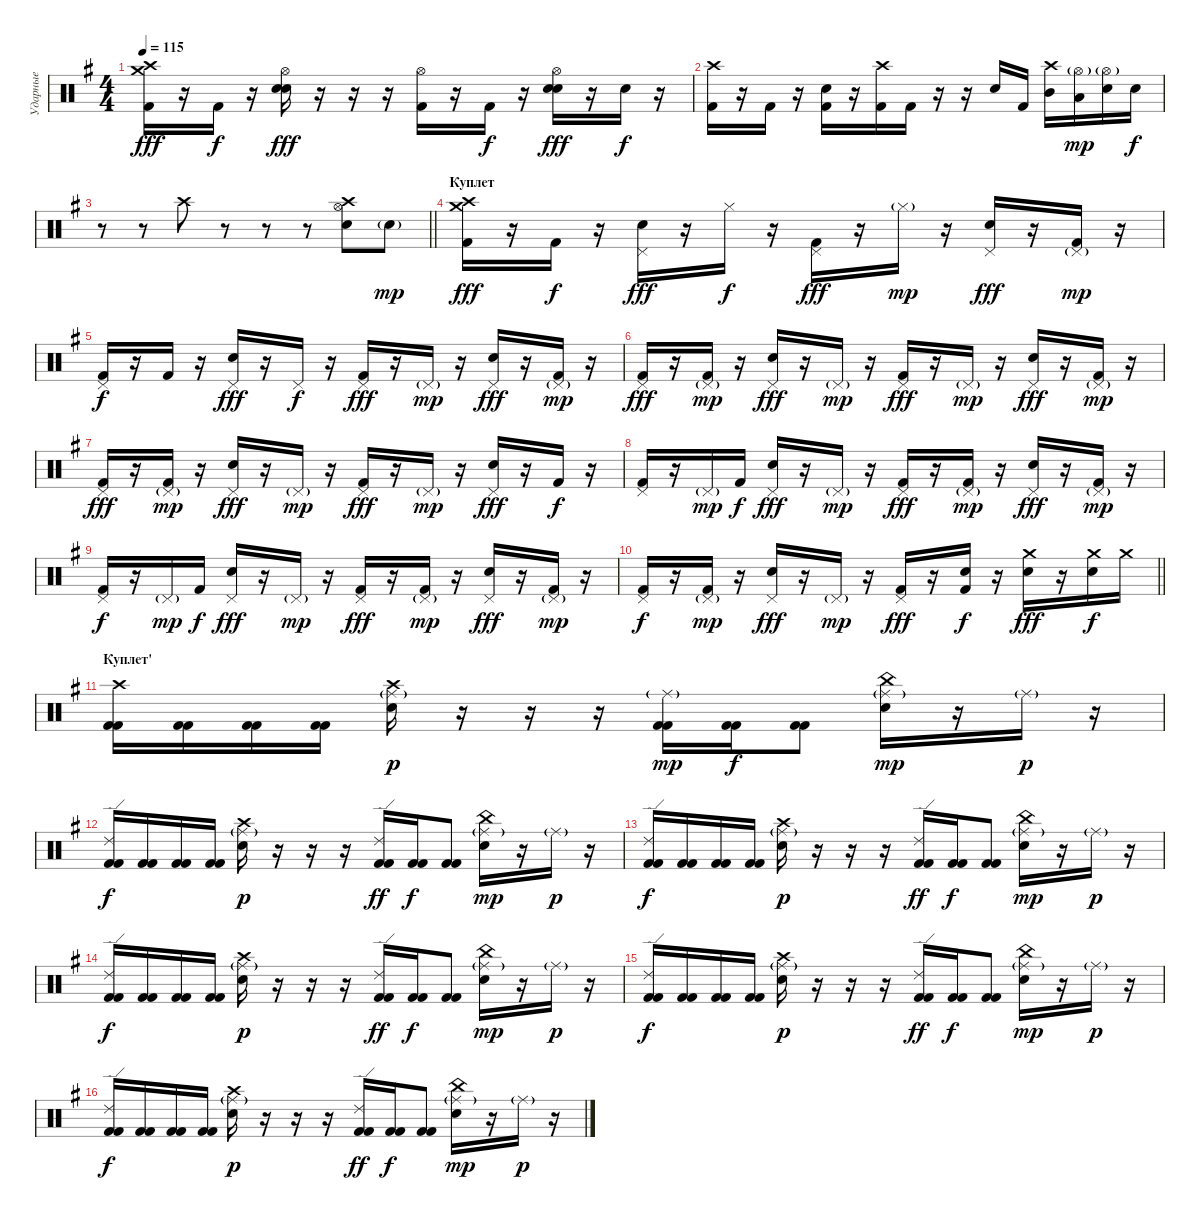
\track ("Ударные" "Ударные") {instrument percussion}
\staff {score}
\articulation defaults
\ts (4 4)
\tempo 115
\clef neutral
\ks g
("Crash high (hit)" "Crash medium (hit)" "Kick (hit) 2").16{dy fff volume 16} r.16 "Kick (hit) 2".16{dy f} r.16 ("Hi-Hat (open)" "Electric Snare (hit)" "Electric Snare (hit)").16{dy fff} r.16 r.16 r.16 ("Hi-Hat (open)" "Kick (hit) 2").16 r.16 "Kick (hit) 2".16{dy f} r.16 ("Hi-Hat (open)" "Electric Snare (hit)" "Electric Snare (hit)").16{dy fff} r.16 "Electric Snare (hit)".16{dy f} r.16 |
("Crash high (hit)" "Kick (hit) 2").16 r.16 "Kick (hit) 2".16 r.16 ("Electric Snare (hit)" "Kick (hit) 2").16 r.16 ("Crash high (hit)" "Kick (hit) 2").16 "Kick (hit) 2".16 r.16 r.16 "Electric Snare (hit)".16 "Kick (hit) 2".16 ("Crash high (hit)" "Mid Tom (hit)").16 ("Hi-Hat (open)"{g} "Low Tom (hit)").16{dy mp} ("Hi-Hat (open)"{g} "Electric Snare (hit)").16 "Electric Snare (hit)".16{dy f} |
\barLineRight lightlight
r.8 r.8 "Crash high (hit)".8 r.8 r.8 r.8 ("Crash high (hit)" "Hi-Hat (open)" "Electric Snare (hit)").8 "Electric Snare (hit)"{g}.8{dy mp} |
\section ("" "Куплет")
("Crash high (hit)" "Crash medium (hit)" "Kick (hit) 2").16{dy fff volume 14 balance 8} r.16 "Kick (hit) 2".16{dy f} r.16 ("Pedal Hi-Hat (hit)" "Electric Snare (hit)").16{dy fff} r.16 "Hi-Hat (closed)".16{dy f} r.16 ("Pedal Hi-Hat (hit)" "Kick (hit) 2").16{dy fff} r.16 "Hi-Hat (closed)"{g}.16{dy mp} r.16 ("Pedal Hi-Hat (hit)" "Electric Snare (hit)").16{dy fff} r.16 ("Pedal Hi-Hat (hit)"{g} "Kick (hit) 2").16{dy mp} r.16 |
("Pedal Hi-Hat (hit)" "Kick (hit) 2").16{dy f} r.16 "Kick (hit) 2".16 r.16 ("Pedal Hi-Hat (hit)" "Electric Snare (hit)").16{dy fff} r.16 "Pedal Hi-Hat (hit)".16{dy f} r.16 ("Pedal Hi-Hat (hit)" "Kick (hit) 2").16{dy fff} r.16 "Pedal Hi-Hat (hit)"{g}.16{dy mp} r.16 ("Pedal Hi-Hat (hit)" "Electric Snare (hit)").16{dy fff} r.16 ("Pedal Hi-Hat (hit)"{g} "Kick (hit) 2").16{dy mp} r.16 |
("Pedal Hi-Hat (hit)" "Kick (hit) 2").16{dy fff} r.16 ("Pedal Hi-Hat (hit)"{g} "Kick (hit) 2").16{dy mp} r.16 ("Pedal Hi-Hat (hit)" "Electric Snare (hit)").16{dy fff} r.16 "Pedal Hi-Hat (hit)"{g}.16{dy mp} r.16 ("Pedal Hi-Hat (hit)" "Kick (hit) 2").16{dy fff} r.16 "Pedal Hi-Hat (hit)"{g}.16{dy mp} r.16 ("Pedal Hi-Hat (hit)" "Electric Snare (hit)").16{dy fff} r.16 ("Pedal Hi-Hat (hit)"{g} "Kick (hit) 2").16{dy mp} r.16 |
("Pedal Hi-Hat (hit)" "Kick (hit) 2").16{dy fff} r.16 ("Pedal Hi-Hat (hit)"{g} "Kick (hit) 2").16{dy mp} r.16 ("Pedal Hi-Hat (hit)" "Electric Snare (hit)").16{dy fff} r.16 "Pedal Hi-Hat (hit)"{g}.16{dy mp} r.16 ("Pedal Hi-Hat (hit)" "Kick (hit) 2").16{dy fff} r.16 "Pedal Hi-Hat (hit)"{g}.16{dy mp} r.16 ("Pedal Hi-Hat (hit)" "Electric Snare (hit)").16{dy fff} r.16 "Kick (hit) 2".16{dy f} r.16 |
("Pedal Hi-Hat (hit)" "Kick (hit) 2").16 r.16 "Pedal Hi-Hat (hit)"{g}.16{dy mp} "Kick (hit) 2".16{dy f} ("Pedal Hi-Hat (hit)" "Electric Snare (hit)").16{dy fff} r.16 "Pedal Hi-Hat (hit)"{g}.16{dy mp} r.16 ("Pedal Hi-Hat (hit)" "Kick (hit) 2").16{dy fff} r.16 ("Pedal Hi-Hat (hit)"{g} "Kick (hit) 2").16{dy mp} r.16 ("Pedal Hi-Hat (hit)" "Electric Snare (hit)").16{dy fff} r.16 ("Pedal Hi-Hat (hit)"{g} "Kick (hit) 2").16{dy mp} r.16 |
("Pedal Hi-Hat (hit)" "Kick (hit) 2").16{dy f} r.16 "Pedal Hi-Hat (hit)"{g}.16{dy mp} "Kick (hit) 2".16{dy f} ("Pedal Hi-Hat (hit)" "Electric Snare (hit)").16{dy fff} r.16 "Pedal Hi-Hat (hit)"{g}.16{dy mp} r.16 ("Pedal Hi-Hat (hit)" "Kick (hit) 2").16{dy fff} r.16 ("Pedal Hi-Hat (hit)"{g} "Kick (hit) 2").16{dy mp} r.16 ("Pedal Hi-Hat (hit)" "Electric Snare (hit)").16{dy fff} r.16 ("Pedal Hi-Hat (hit)"{g} "Kick (hit) 2").16{dy mp} r.16 |
\barLineRight lightlight
("Pedal Hi-Hat (hit)" "Kick (hit) 2").16{dy f} r.16 ("Pedal Hi-Hat (hit)"{g} "Kick (hit) 2").16{dy mp} r.16 ("Pedal Hi-Hat (hit)" "Electric Snare (hit)").16{dy fff} r.16 "Pedal Hi-Hat (hit)"{g}.16{dy mp} r.16 ("Pedal Hi-Hat (hit)" "Kick (hit) 2").16{dy fff} r.16 ("Electric Snare (hit)" "Kick (hit) 2").16{dy f} r.16 ("Crash medium (hit)" "Electric Snare (hit)").16{dy fff} r.16 ("Crash medium (hit)" "Electric Snare (hit)").16{dy f} "Crash medium (hit)".16 |
\section ("" "Куплет'")
("Crash high (hit)" "Kick (hit) 2" "Kick (hit) 2").16{volume 16} ("Kick (hit) 2" "Kick (hit) 2").16 ("Kick (hit) 2" "Kick (hit) 2").16 ("Kick (hit) 2" "Kick (hit) 2").16 ("Ride (middle)"{g} "Crash high (hit)" "Electric Snare (hit)").16{dy p} r.16 r.16 r.16 ("Ride (middle)"{g} "Kick (hit) 2" "Kick (hit) 2").16{dy mp} ("Kick (hit) 2" "Kick (hit) 2").16{dy f} ("Kick (hit) 2" "Kick (hit) 2").8 ("Ride (middle)"{g} "China (hit)" "Electric Snare (hit)").16{dy mp} r.16 "Ride (middle)"{g}.16{dy p} r.16 |
("Ride (edge) 2" "Kick (hit) 2" "Kick (hit) 2").16{dy f volume 16} ("Kick (hit) 2" "Kick (hit) 2").16 ("Kick (hit) 2" "Kick (hit) 2").16 ("Kick (hit) 2" "Kick (hit) 2").16 ("Ride (middle)"{g} "Crash high (hit)" "Electric Snare (hit)").16{dy p} r.16 r.16 r.16 ("Ride (edge) 2" "Kick (hit) 2" "Kick (hit) 2").16{dy ff} ("Kick (hit) 2" "Kick (hit) 2").16{dy f} ("Kick (hit) 2" "Kick (hit) 2").8 ("Ride (middle)"{g} "China (hit)" "Electric Snare (hit)").16{dy mp} r.16 "Ride (middle)"{g}.16{dy p} r.16 |
("Ride (edge) 2" "Kick (hit) 2" "Kick (hit) 2").16{dy f volume 16} ("Kick (hit) 2" "Kick (hit) 2").16 ("Kick (hit) 2" "Kick (hit) 2").16 ("Kick (hit) 2" "Kick (hit) 2").16 ("Ride (middle)"{g} "Crash high (hit)" "Electric Snare (hit)").16{dy p} r.16 r.16 r.16 ("Ride (edge) 2" "Kick (hit) 2" "Kick (hit) 2").16{dy ff} ("Kick (hit) 2" "Kick (hit) 2").16{dy f} ("Kick (hit) 2" "Kick (hit) 2").8 ("Ride (middle)"{g} "China (hit)" "Electric Snare (hit)").16{dy mp} r.16 "Ride (middle)"{g}.16{dy p} r.16 |
("Ride (edge) 2" "Kick (hit) 2" "Kick (hit) 2").16{dy f volume 16} ("Kick (hit) 2" "Kick (hit) 2").16 ("Kick (hit) 2" "Kick (hit) 2").16 ("Kick (hit) 2" "Kick (hit) 2").16 ("Ride (middle)"{g} "Crash high (hit)" "Electric Snare (hit)").16{dy p} r.16 r.16 r.16 ("Ride (edge) 2" "Kick (hit) 2" "Kick (hit) 2").16{dy ff} ("Kick (hit) 2" "Kick (hit) 2").16{dy f} ("Kick (hit) 2" "Kick (hit) 2").8 ("Ride (middle)"{g} "China (hit)" "Electric Snare (hit)").16{dy mp} r.16 "Ride (middle)"{g}.16{dy p} r.16 |
("Ride (edge) 2" "Kick (hit) 2" "Kick (hit) 2").16{dy f volume 16} ("Kick (hit) 2" "Kick (hit) 2").16 ("Kick (hit) 2" "Kick (hit) 2").16 ("Kick (hit) 2" "Kick (hit) 2").16 ("Ride (middle)"{g} "Crash high (hit)" "Electric Snare (hit)").16{dy p} r.16 r.16 r.16 ("Ride (edge) 2" "Kick (hit) 2" "Kick (hit) 2").16{dy ff} ("Kick (hit) 2" "Kick (hit) 2").16{dy f} ("Kick (hit) 2" "Kick (hit) 2").8 ("Ride (middle)"{g} "China (hit)" "Electric Snare (hit)").16{dy mp} r.16 "Ride (middle)"{g}.16{dy p} r.16 |
("Ride (edge) 2" "Kick (hit) 2" "Kick (hit) 2").16{dy f volume 16} ("Kick (hit) 2" "Kick (hit) 2").16 ("Kick (hit) 2" "Kick (hit) 2").16 ("Kick (hit) 2" "Kick (hit) 2").16 ("Ride (middle)"{g} "Crash high (hit)" "Electric Snare (hit)").16{dy p} r.16 r.16 r.16 ("Ride (edge) 2" "Kick (hit) 2" "Kick (hit) 2").16{dy ff} ("Kick (hit) 2" "Kick (hit) 2").16{dy f} ("Kick (hit) 2" "Kick (hit) 2").8 ("Ride (middle)"{g} "China (hit)" "Electric Snare (hit)").16{dy mp} r.16 "Ride (middle)"{g}.16{dy p} r.16
